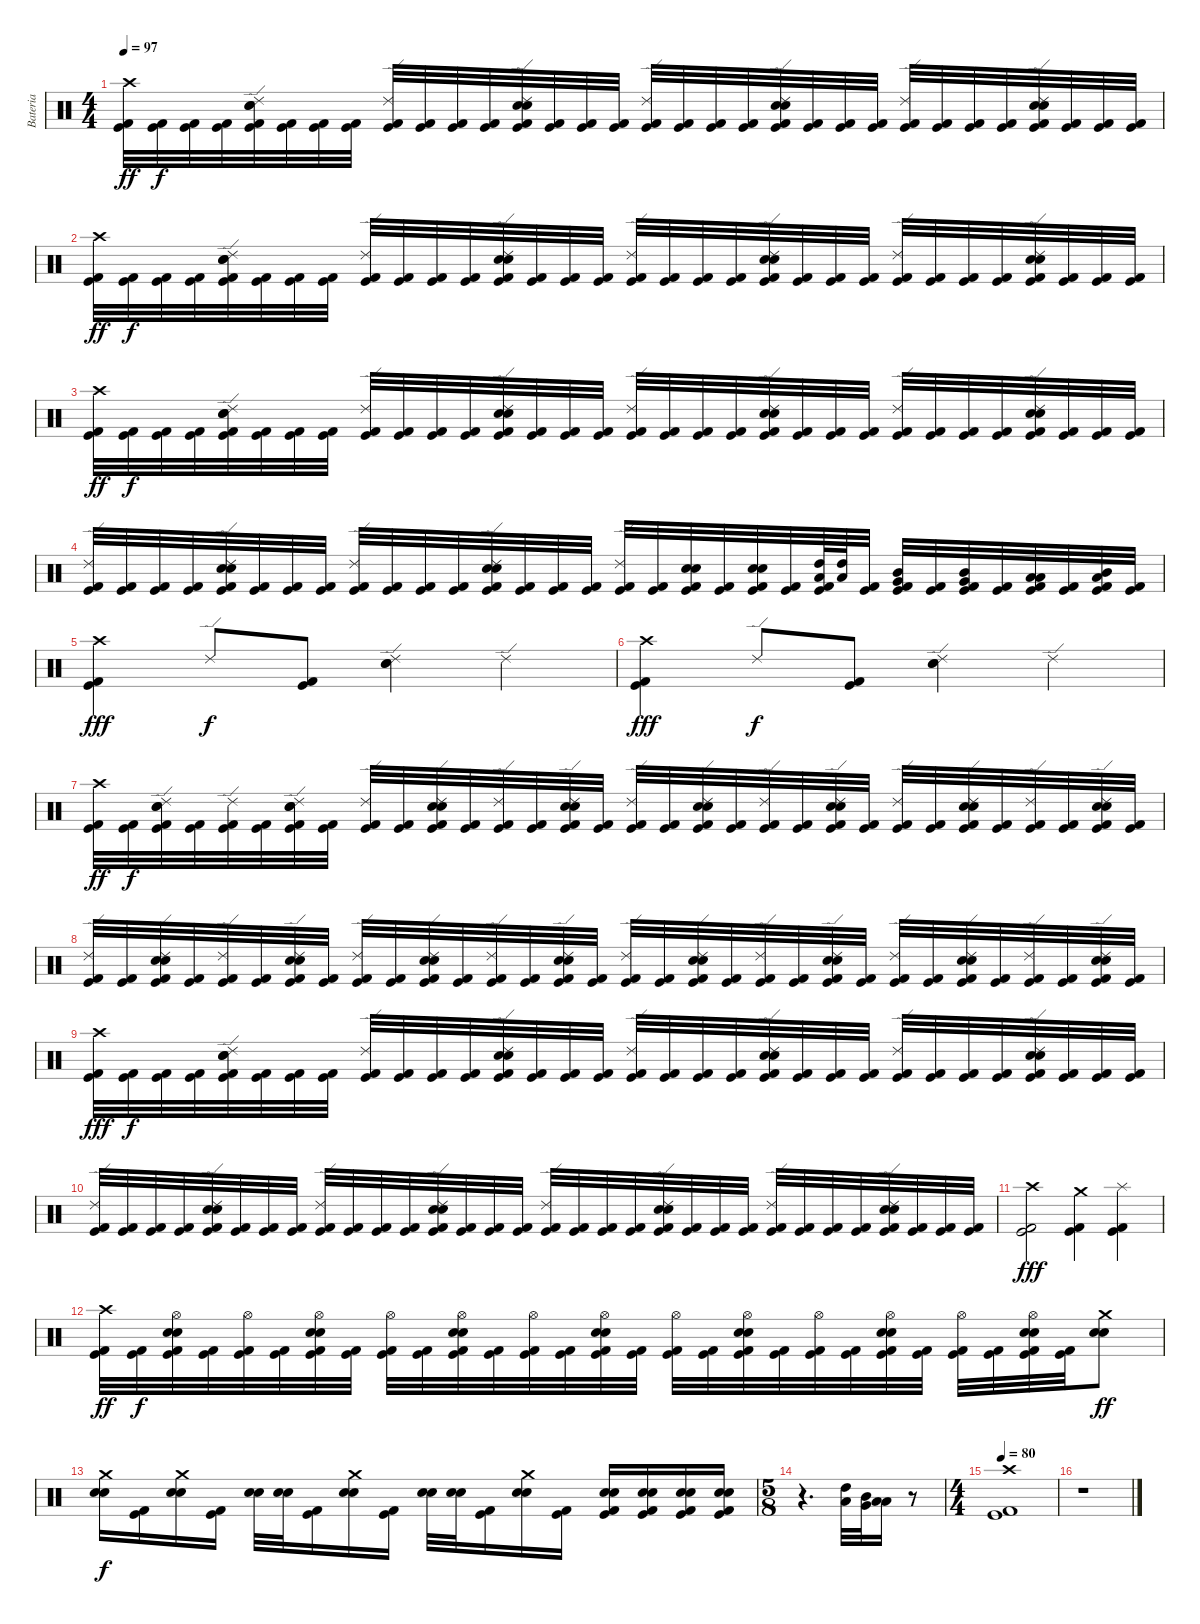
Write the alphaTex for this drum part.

\track ("Bateria" "Bateria") {instrument percussion}
\staff {score}
\articulation defaults
\ts (4 4)
\tempo 97
\clef neutral
\ks c
("Crash high (hit)" "Kick (hit) 2" "Kick (hit)").32{dy ff} ("Kick (hit) 2" "Kick (hit)").32{dy f} ("Kick (hit) 2" "Kick (hit)").32 ("Kick (hit) 2" "Kick (hit)").32 ("Ride (edge) 2" "Electric Snare (hit)" "Snare (hit) 2" "Kick (hit) 2" "Kick (hit)").32 ("Kick (hit) 2" "Kick (hit)").32 ("Kick (hit) 2" "Kick (hit)").32 ("Kick (hit) 2" "Kick (hit)").32 ("Ride (edge) 2" "Kick (hit) 2" "Kick (hit)").32 ("Kick (hit) 2" "Kick (hit)").32 ("Kick (hit) 2" "Kick (hit)").32 ("Kick (hit) 2" "Kick (hit)").32 ("Ride (edge) 2" "Electric Snare (hit)" "Snare (hit) 2" "Kick (hit) 2" "Kick (hit)").32 ("Kick (hit) 2" "Kick (hit)").32 ("Kick (hit) 2" "Kick (hit)").32 ("Kick (hit) 2" "Kick (hit)").32 ("Ride (edge) 2" "Kick (hit) 2" "Kick (hit)").32 ("Kick (hit) 2" "Kick (hit)").32 ("Kick (hit) 2" "Kick (hit)").32 ("Kick (hit) 2" "Kick (hit)").32 ("Ride (edge) 2" "Electric Snare (hit)" "Snare (hit) 2" "Kick (hit) 2" "Kick (hit)").32 ("Kick (hit) 2" "Kick (hit)").32 ("Kick (hit) 2" "Kick (hit)").32 ("Kick (hit) 2" "Kick (hit)").32 ("Ride (edge) 2" "Kick (hit) 2" "Kick (hit)").32 ("Kick (hit) 2" "Kick (hit)").32 ("Kick (hit) 2" "Kick (hit)").32 ("Kick (hit) 2" "Kick (hit)").32 ("Ride (edge) 2" "Electric Snare (hit)" "Snare (hit) 2" "Kick (hit) 2" "Kick (hit)").32 ("Kick (hit) 2" "Kick (hit)").32 ("Kick (hit) 2" "Kick (hit)").32 ("Kick (hit) 2" "Kick (hit)").32 |
("Crash high (hit)" "Kick (hit) 2" "Kick (hit)").32{dy ff} ("Kick (hit) 2" "Kick (hit)").32{dy f} ("Kick (hit) 2" "Kick (hit)").32 ("Kick (hit) 2" "Kick (hit)").32 ("Ride (edge) 2" "Electric Snare (hit)" "Snare (hit) 2" "Kick (hit) 2" "Kick (hit)").32 ("Kick (hit) 2" "Kick (hit)").32 ("Kick (hit) 2" "Kick (hit)").32 ("Kick (hit) 2" "Kick (hit)").32 ("Ride (edge) 2" "Kick (hit) 2" "Kick (hit)").32 ("Kick (hit) 2" "Kick (hit)").32 ("Kick (hit) 2" "Kick (hit)").32 ("Kick (hit) 2" "Kick (hit)").32 ("Ride (edge) 2" "Electric Snare (hit)" "Snare (hit) 2" "Kick (hit) 2" "Kick (hit)").32 ("Kick (hit) 2" "Kick (hit)").32 ("Kick (hit) 2" "Kick (hit)").32 ("Kick (hit) 2" "Kick (hit)").32 ("Ride (edge) 2" "Kick (hit) 2" "Kick (hit)").32 ("Kick (hit) 2" "Kick (hit)").32 ("Kick (hit) 2" "Kick (hit)").32 ("Kick (hit) 2" "Kick (hit)").32 ("Ride (edge) 2" "Electric Snare (hit)" "Snare (hit) 2" "Kick (hit) 2" "Kick (hit)").32 ("Kick (hit) 2" "Kick (hit)").32 ("Kick (hit) 2" "Kick (hit)").32 ("Kick (hit) 2" "Kick (hit)").32 ("Ride (edge) 2" "Kick (hit) 2" "Kick (hit)").32 ("Kick (hit) 2" "Kick (hit)").32 ("Kick (hit) 2" "Kick (hit)").32 ("Kick (hit) 2" "Kick (hit)").32 ("Ride (edge) 2" "Electric Snare (hit)" "Snare (hit) 2" "Kick (hit) 2" "Kick (hit)").32 ("Kick (hit) 2" "Kick (hit)").32 ("Kick (hit) 2" "Kick (hit)").32 ("Kick (hit) 2" "Kick (hit)").32 |
("Crash high (hit)" "Kick (hit) 2" "Kick (hit)").32{dy ff} ("Kick (hit) 2" "Kick (hit)").32{dy f} ("Kick (hit) 2" "Kick (hit)").32 ("Kick (hit) 2" "Kick (hit)").32 ("Ride (edge) 2" "Electric Snare (hit)" "Snare (hit) 2" "Kick (hit) 2" "Kick (hit)").32 ("Kick (hit) 2" "Kick (hit)").32 ("Kick (hit) 2" "Kick (hit)").32 ("Kick (hit) 2" "Kick (hit)").32 ("Ride (edge) 2" "Kick (hit) 2" "Kick (hit)").32 ("Kick (hit) 2" "Kick (hit)").32 ("Kick (hit) 2" "Kick (hit)").32 ("Kick (hit) 2" "Kick (hit)").32 ("Ride (edge) 2" "Electric Snare (hit)" "Snare (hit) 2" "Kick (hit) 2" "Kick (hit)").32 ("Kick (hit) 2" "Kick (hit)").32 ("Kick (hit) 2" "Kick (hit)").32 ("Kick (hit) 2" "Kick (hit)").32 ("Ride (edge) 2" "Kick (hit) 2" "Kick (hit)").32 ("Kick (hit) 2" "Kick (hit)").32 ("Kick (hit) 2" "Kick (hit)").32 ("Kick (hit) 2" "Kick (hit)").32 ("Ride (edge) 2" "Electric Snare (hit)" "Snare (hit) 2" "Kick (hit) 2" "Kick (hit)").32 ("Kick (hit) 2" "Kick (hit)").32 ("Kick (hit) 2" "Kick (hit)").32 ("Kick (hit) 2" "Kick (hit)").32 ("Ride (edge) 2" "Kick (hit) 2" "Kick (hit)").32 ("Kick (hit) 2" "Kick (hit)").32 ("Kick (hit) 2" "Kick (hit)").32 ("Kick (hit) 2" "Kick (hit)").32 ("Ride (edge) 2" "Electric Snare (hit)" "Snare (hit) 2" "Kick (hit) 2" "Kick (hit)").32 ("Kick (hit) 2" "Kick (hit)").32 ("Kick (hit) 2" "Kick (hit)").32 ("Kick (hit) 2" "Kick (hit)").32 |
("Ride (edge) 2" "Kick (hit) 2" "Kick (hit)").32 ("Kick (hit) 2" "Kick (hit)").32 ("Kick (hit) 2" "Kick (hit)").32 ("Kick (hit) 2" "Kick (hit)").32 ("Ride (edge) 2" "Electric Snare (hit)" "Snare (hit) 2" "Kick (hit) 2" "Kick (hit)").32 ("Kick (hit) 2" "Kick (hit)").32 ("Kick (hit) 2" "Kick (hit)").32 ("Kick (hit) 2" "Kick (hit)").32 ("Ride (edge) 2" "Kick (hit) 2" "Kick (hit)").32 ("Kick (hit) 2" "Kick (hit)").32 ("Kick (hit) 2" "Kick (hit)").32 ("Kick (hit) 2" "Kick (hit)").32 ("Ride (edge) 2" "Electric Snare (hit)" "Snare (hit) 2" "Kick (hit) 2" "Kick (hit)").32 ("Kick (hit) 2" "Kick (hit)").32 ("Kick (hit) 2" "Kick (hit)").32 ("Kick (hit) 2" "Kick (hit)").32 ("Ride (edge) 2" "Kick (hit) 2" "Kick (hit)").32 ("Kick (hit) 2" "Kick (hit)").32 ("Electric Snare (hit)" "Snare (hit) 2" "Kick (hit) 2" "Kick (hit)").32 ("Kick (hit) 2" "Kick (hit)").32 ("Electric Snare (hit)" "Snare (hit) 2" "Kick (hit) 2" "Kick (hit)").32 ("Kick (hit) 2" "Kick (hit)").32 ("High Tom (hit)" "Low Tom (hit)" "Kick (hit) 2" "Kick (hit)").64 ("High Tom (hit)" "Low Tom (hit)").64 ("Kick (hit) 2" "Kick (hit)").32 ("Mid Tom (hit)" "Very Low Tom (hit)" "Kick (hit) 2" "Kick (hit)").32 ("Kick (hit) 2" "Kick (hit)").32 ("Mid Tom (hit)" "Very Low Tom (hit)" "Kick (hit) 2" "Kick (hit)").32 ("Kick (hit) 2" "Kick (hit)").32 ("Low Tom (hit)" "Low Floor Tom (hit)" "Kick (hit) 2" "Kick (hit)").32 ("Kick (hit) 2" "Kick (hit)").32 ("Mid Tom (hit)" "Low Floor Tom (hit)" "Kick (hit) 2" "Kick (hit)").32 ("Kick (hit) 2" "Kick (hit)").32 |
("Crash high (hit)" "Kick (hit) 2" "Kick (hit)").4{dy fff} "Ride (edge) 2".8{dy f} ("Kick (hit) 2" "Kick (hit)").8 ("Ride (edge) 2" "Electric Snare (hit)" "Snare (hit) 2").4 "Ride (edge) 2".4 |
("Crash high (hit)" "Kick (hit) 2" "Kick (hit)").4{dy fff} "Ride (edge) 2".8{dy f} ("Kick (hit) 2" "Kick (hit)").8 ("Ride (edge) 2" "Electric Snare (hit)" "Snare (hit) 2").4 "Ride (edge) 2".4 |
("Crash high (hit)" "Kick (hit) 2" "Kick (hit)").32{dy ff} ("Kick (hit) 2" "Kick (hit)").32{dy f} ("Ride (edge) 2" "Electric Snare (hit)" "Snare (hit) 2" "Kick (hit) 2" "Kick (hit)").32 ("Kick (hit) 2" "Kick (hit)").32 ("Ride (edge) 2" "Kick (hit) 2" "Kick (hit)").32 ("Kick (hit) 2" "Kick (hit)").32 ("Ride (edge) 2" "Electric Snare (hit)" "Snare (hit) 2" "Kick (hit) 2" "Kick (hit)").32 ("Kick (hit) 2" "Kick (hit)").32 ("Ride (edge) 2" "Kick (hit) 2" "Kick (hit)").32 ("Kick (hit) 2" "Kick (hit)").32 ("Ride (edge) 2" "Electric Snare (hit)" "Snare (hit) 2" "Kick (hit) 2" "Kick (hit)").32 ("Kick (hit) 2" "Kick (hit)").32 ("Ride (edge) 2" "Kick (hit) 2" "Kick (hit)").32 ("Kick (hit) 2" "Kick (hit)").32 ("Ride (edge) 2" "Electric Snare (hit)" "Snare (hit) 2" "Kick (hit) 2" "Kick (hit)").32 ("Kick (hit) 2" "Kick (hit)").32 ("Ride (edge) 2" "Kick (hit) 2" "Kick (hit)").32 ("Kick (hit) 2" "Kick (hit)").32 ("Ride (edge) 2" "Electric Snare (hit)" "Snare (hit) 2" "Kick (hit) 2" "Kick (hit)").32 ("Kick (hit) 2" "Kick (hit)").32 ("Ride (edge) 2" "Kick (hit) 2" "Kick (hit)").32 ("Kick (hit) 2" "Kick (hit)").32 ("Ride (edge) 2" "Electric Snare (hit)" "Snare (hit) 2" "Kick (hit) 2" "Kick (hit)").32 ("Kick (hit) 2" "Kick (hit)").32 ("Ride (edge) 2" "Kick (hit) 2" "Kick (hit)").32 ("Kick (hit) 2" "Kick (hit)").32 ("Ride (edge) 2" "Electric Snare (hit)" "Snare (hit) 2" "Kick (hit) 2" "Kick (hit)").32 ("Kick (hit) 2" "Kick (hit)").32 ("Ride (edge) 2" "Kick (hit) 2" "Kick (hit)").32 ("Kick (hit) 2" "Kick (hit)").32 ("Ride (edge) 2" "Electric Snare (hit)" "Snare (hit) 2" "Kick (hit) 2" "Kick (hit)").32 ("Kick (hit) 2" "Kick (hit)").32 |
("Ride (edge) 2" "Kick (hit) 2" "Kick (hit)").32 ("Kick (hit) 2" "Kick (hit)").32 ("Ride (edge) 2" "Electric Snare (hit)" "Snare (hit) 2" "Kick (hit) 2" "Kick (hit)").32 ("Kick (hit) 2" "Kick (hit)").32 ("Ride (edge) 2" "Kick (hit) 2" "Kick (hit)").32 ("Kick (hit) 2" "Kick (hit)").32 ("Ride (edge) 2" "Electric Snare (hit)" "Snare (hit) 2" "Kick (hit) 2" "Kick (hit)").32 ("Kick (hit) 2" "Kick (hit)").32 ("Ride (edge) 2" "Kick (hit) 2" "Kick (hit)").32 ("Kick (hit) 2" "Kick (hit)").32 ("Ride (edge) 2" "Electric Snare (hit)" "Snare (hit) 2" "Kick (hit) 2" "Kick (hit)").32 ("Kick (hit) 2" "Kick (hit)").32 ("Ride (edge) 2" "Kick (hit) 2" "Kick (hit)").32 ("Kick (hit) 2" "Kick (hit)").32 ("Ride (edge) 2" "Electric Snare (hit)" "Snare (hit) 2" "Kick (hit) 2" "Kick (hit)").32 ("Kick (hit) 2" "Kick (hit)").32 ("Ride (edge) 2" "Kick (hit) 2" "Kick (hit)").32 ("Kick (hit) 2" "Kick (hit)").32 ("Ride (edge) 2" "Electric Snare (hit)" "Snare (hit) 2" "Kick (hit) 2" "Kick (hit)").32 ("Kick (hit) 2" "Kick (hit)").32 ("Ride (edge) 2" "Kick (hit) 2" "Kick (hit)").32 ("Kick (hit) 2" "Kick (hit)").32 ("Ride (edge) 2" "Electric Snare (hit)" "Snare (hit) 2" "Kick (hit) 2" "Kick (hit)").32 ("Kick (hit) 2" "Kick (hit)").32 ("Ride (edge) 2" "Kick (hit) 2" "Kick (hit)").32 ("Kick (hit) 2" "Kick (hit)").32 ("Ride (edge) 2" "Electric Snare (hit)" "Snare (hit) 2" "Kick (hit) 2" "Kick (hit)").32 ("Kick (hit) 2" "Kick (hit)").32 ("Ride (edge) 2" "Kick (hit) 2" "Kick (hit)").32 ("Kick (hit) 2" "Kick (hit)").32 ("Ride (edge) 2" "Electric Snare (hit)" "Snare (hit) 2" "Kick (hit) 2" "Kick (hit)").32 ("Kick (hit) 2" "Kick (hit)").32 |
("Crash high (hit)" "Kick (hit) 2" "Kick (hit)").32{dy fff} ("Kick (hit) 2" "Kick (hit)").32{dy f} ("Kick (hit) 2" "Kick (hit)").32 ("Kick (hit) 2" "Kick (hit)").32 ("Ride (edge) 2" "Electric Snare (hit)" "Snare (hit) 2" "Kick (hit) 2" "Kick (hit)").32 ("Kick (hit) 2" "Kick (hit)").32 ("Kick (hit) 2" "Kick (hit)").32 ("Kick (hit) 2" "Kick (hit)").32 ("Ride (edge) 2" "Kick (hit) 2" "Kick (hit)").32 ("Kick (hit) 2" "Kick (hit)").32 ("Kick (hit) 2" "Kick (hit)").32 ("Kick (hit) 2" "Kick (hit)").32 ("Ride (edge) 2" "Electric Snare (hit)" "Snare (hit) 2" "Kick (hit) 2" "Kick (hit)").32 ("Kick (hit) 2" "Kick (hit)").32 ("Kick (hit) 2" "Kick (hit)").32 ("Kick (hit) 2" "Kick (hit)").32 ("Ride (edge) 2" "Kick (hit) 2" "Kick (hit)").32 ("Kick (hit) 2" "Kick (hit)").32 ("Kick (hit) 2" "Kick (hit)").32 ("Kick (hit) 2" "Kick (hit)").32 ("Ride (edge) 2" "Electric Snare (hit)" "Snare (hit) 2" "Kick (hit) 2" "Kick (hit)").32 ("Kick (hit) 2" "Kick (hit)").32 ("Kick (hit) 2" "Kick (hit)").32 ("Kick (hit) 2" "Kick (hit)").32 ("Ride (edge) 2" "Kick (hit) 2" "Kick (hit)").32 ("Kick (hit) 2" "Kick (hit)").32 ("Kick (hit) 2" "Kick (hit)").32 ("Kick (hit) 2" "Kick (hit)").32 ("Ride (edge) 2" "Electric Snare (hit)" "Snare (hit) 2" "Kick (hit) 2" "Kick (hit)").32 ("Kick (hit) 2" "Kick (hit)").32 ("Kick (hit) 2" "Kick (hit)").32 ("Kick (hit) 2" "Kick (hit)").32 |
("Ride (edge) 2" "Kick (hit) 2" "Kick (hit)").32 ("Kick (hit) 2" "Kick (hit)").32 ("Kick (hit) 2" "Kick (hit)").32 ("Kick (hit) 2" "Kick (hit)").32 ("Ride (edge) 2" "Electric Snare (hit)" "Snare (hit) 2" "Kick (hit) 2" "Kick (hit)").32 ("Kick (hit) 2" "Kick (hit)").32 ("Kick (hit) 2" "Kick (hit)").32 ("Kick (hit) 2" "Kick (hit)").32 ("Ride (edge) 2" "Kick (hit) 2" "Kick (hit)").32 ("Kick (hit) 2" "Kick (hit)").32 ("Kick (hit) 2" "Kick (hit)").32 ("Kick (hit) 2" "Kick (hit)").32 ("Ride (edge) 2" "Electric Snare (hit)" "Snare (hit) 2" "Kick (hit) 2" "Kick (hit)").32 ("Kick (hit) 2" "Kick (hit)").32 ("Kick (hit) 2" "Kick (hit)").32 ("Kick (hit) 2" "Kick (hit)").32 ("Ride (edge) 2" "Kick (hit) 2" "Kick (hit)").32 ("Kick (hit) 2" "Kick (hit)").32 ("Kick (hit) 2" "Kick (hit)").32 ("Kick (hit) 2" "Kick (hit)").32 ("Ride (edge) 2" "Electric Snare (hit)" "Snare (hit) 2" "Kick (hit) 2" "Kick (hit)").32 ("Kick (hit) 2" "Kick (hit)").32 ("Kick (hit) 2" "Kick (hit)").32 ("Kick (hit) 2" "Kick (hit)").32 ("Ride (edge) 2" "Kick (hit) 2" "Kick (hit)").32 ("Kick (hit) 2" "Kick (hit)").32 ("Kick (hit) 2" "Kick (hit)").32 ("Kick (hit) 2" "Kick (hit)").32 ("Ride (edge) 2" "Electric Snare (hit)" "Snare (hit) 2" "Kick (hit) 2" "Kick (hit)").32 ("Kick (hit) 2" "Kick (hit)").32 ("Kick (hit) 2" "Kick (hit)").32 ("Kick (hit) 2" "Kick (hit)").32 |
("Crash high (hit)" "Kick (hit) 2" "Kick (hit)").2{dy fff} ("Crash medium (hit)" "Kick (hit) 2" "Kick (hit)").4 ("Splash (hit)" "Kick (hit) 2" "Kick (hit)").4 |
("Crash high (hit)" "Kick (hit) 2" "Kick (hit)").32{dy ff} ("Kick (hit) 2" "Kick (hit)").32{dy f} ("Hi-Hat (open)" "Electric Snare (hit)" "Snare (hit) 2" "Kick (hit) 2" "Kick (hit)").32 ("Kick (hit) 2" "Kick (hit)").32 ("Hi-Hat (open)" "Kick (hit) 2" "Kick (hit)").32 ("Kick (hit) 2" "Kick (hit)").32 ("Hi-Hat (open)" "Electric Snare (hit)" "Snare (hit) 2" "Kick (hit) 2" "Kick (hit)").32 ("Kick (hit) 2" "Kick (hit)").32 ("Hi-Hat (open)" "Kick (hit) 2" "Kick (hit)").32 ("Kick (hit) 2" "Kick (hit)").32 ("Hi-Hat (open)" "Electric Snare (hit)" "Snare (hit) 2" "Kick (hit) 2" "Kick (hit)").32 ("Kick (hit) 2" "Kick (hit)").32 ("Hi-Hat (open)" "Kick (hit) 2" "Kick (hit)").32 ("Kick (hit) 2" "Kick (hit)").32 ("Hi-Hat (open)" "Electric Snare (hit)" "Snare (hit) 2" "Kick (hit) 2" "Kick (hit)").32 ("Kick (hit) 2" "Kick (hit)").32 ("Hi-Hat (open)" "Kick (hit) 2" "Kick (hit)").32 ("Kick (hit) 2" "Kick (hit)").32 ("Hi-Hat (open)" "Electric Snare (hit)" "Snare (hit) 2" "Kick (hit) 2" "Kick (hit)").32 ("Kick (hit) 2" "Kick (hit)").32 ("Hi-Hat (open)" "Kick (hit) 2" "Kick (hit)").32 ("Kick (hit) 2" "Kick (hit)").32 ("Hi-Hat (open)" "Electric Snare (hit)" "Snare (hit) 2" "Kick (hit) 2" "Kick (hit)").32 ("Kick (hit) 2" "Kick (hit)").32 ("Hi-Hat (open)" "Kick (hit) 2" "Kick (hit)").32 ("Kick (hit) 2" "Kick (hit)").32 ("Hi-Hat (open)" "Electric Snare (hit)" "Snare (hit) 2" "Kick (hit) 2" "Kick (hit)").32 ("Kick (hit) 2" "Kick (hit)").32 ("Crash medium (hit)" "Electric Snare (hit)" "Snare (hit) 2").8{dy ff} |
("Crash medium (hit)" "Electric Snare (hit)" "Snare (hit) 2").16{dy f} ("Kick (hit) 2" "Kick (hit)").16 ("Crash medium (hit)" "Electric Snare (hit)" "Snare (hit) 2").16 ("Kick (hit) 2" "Kick (hit)").16 ("Electric Snare (hit)" "Snare (hit) 2").32 ("Electric Snare (hit)" "Snare (hit) 2").32 ("Kick (hit) 2" "Kick (hit)").16 ("Crash medium (hit)" "Electric Snare (hit)" "Snare (hit) 2").16 ("Kick (hit) 2" "Kick (hit)").16 ("Electric Snare (hit)" "Snare (hit) 2").32 ("Electric Snare (hit)" "Snare (hit) 2").32 ("Kick (hit) 2" "Kick (hit)").16 ("Crash medium (hit)" "Electric Snare (hit)" "Snare (hit) 2").16 ("Kick (hit) 2" "Kick (hit)").16 ("Electric Snare (hit)" "Snare (hit) 2" "Kick (hit) 2" "Kick (hit)").16 ("Electric Snare (hit)" "Snare (hit) 2" "Kick (hit) 2" "Kick (hit)").16 ("Electric Snare (hit)" "Snare (hit) 2" "Kick (hit) 2" "Kick (hit)").16 ("Electric Snare (hit)" "Snare (hit) 2" "Kick (hit) 2" "Kick (hit)").16 |
\ts (5 8)
r.4{d} ("High Tom (hit)" "Low Tom (hit)").32 ("Mid Tom (hit)" "Very Low Tom (hit)").32 ("Low Tom (hit)" "Low Floor Tom (hit)").16 r.8 |
\ts (4 4)
\tempo 80
("Crash high (hit)" "Kick (hit) 2" "Kick (hit)").1 |
r.1
